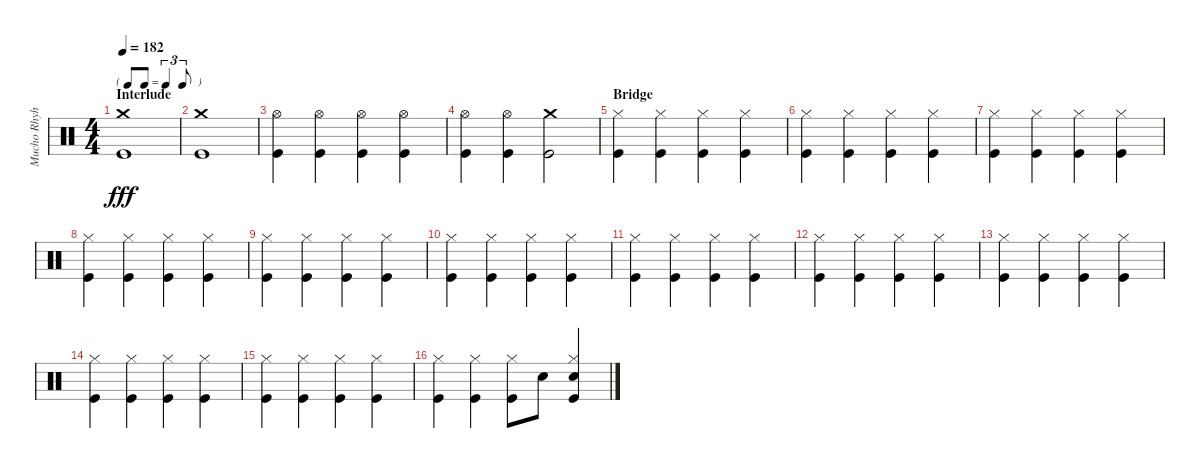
\track ("Mucho Rhyhtm" "Mucho Rhyh") {instrument percussion}
\staff {score}
\articulation defaults
\ts (4 4)
\tf triplet8th
\section ("" "Interlude")
\tempo 182
\clef neutral
\ks c
("Crash medium (hit)" "Kick (hit)").1{dy fff} |
("Crash medium (hit)" "Kick (hit)").1 |
("Hi-Hat (open)" "Kick (hit)").4 ("Hi-Hat (open)" "Kick (hit)").4 ("Hi-Hat (open)" "Kick (hit)").4 ("Hi-Hat (open)" "Kick (hit)").4 |
("Hi-Hat (open)" "Kick (hit)").4 ("Hi-Hat (open)" "Kick (hit)").4 ("Crash medium (hit)" "Kick (hit)").2 |
\section ("" "Bridge")
("Hi-Hat (closed)" "Kick (hit)").4 ("Hi-Hat (closed)" "Kick (hit)").4 ("Hi-Hat (closed)" "Kick (hit)").4 ("Hi-Hat (closed)" "Kick (hit)").4 |
("Hi-Hat (closed)" "Kick (hit)").4 ("Hi-Hat (closed)" "Kick (hit)").4 ("Hi-Hat (closed)" "Kick (hit)").4 ("Hi-Hat (closed)" "Kick (hit)").4 |
("Hi-Hat (closed)" "Kick (hit)").4 ("Hi-Hat (closed)" "Kick (hit)").4 ("Hi-Hat (closed)" "Kick (hit)").4 ("Hi-Hat (closed)" "Kick (hit)").4 |
("Hi-Hat (closed)" "Kick (hit)").4 ("Hi-Hat (closed)" "Kick (hit)").4 ("Hi-Hat (closed)" "Kick (hit)").4 ("Hi-Hat (closed)" "Kick (hit)").4 |
("Hi-Hat (closed)" "Kick (hit)").4 ("Hi-Hat (closed)" "Kick (hit)").4 ("Hi-Hat (closed)" "Kick (hit)").4 ("Hi-Hat (closed)" "Kick (hit)").4 |
("Hi-Hat (closed)" "Kick (hit)").4 ("Hi-Hat (closed)" "Kick (hit)").4 ("Hi-Hat (closed)" "Kick (hit)").4 ("Hi-Hat (closed)" "Kick (hit)").4 |
("Hi-Hat (closed)" "Kick (hit)").4 ("Hi-Hat (closed)" "Kick (hit)").4 ("Hi-Hat (closed)" "Kick (hit)").4 ("Hi-Hat (closed)" "Kick (hit)").4 |
("Hi-Hat (closed)" "Kick (hit)").4 ("Hi-Hat (closed)" "Kick (hit)").4 ("Hi-Hat (closed)" "Kick (hit)").4 ("Hi-Hat (closed)" "Kick (hit)").4 |
("Hi-Hat (closed)" "Kick (hit)").4 ("Hi-Hat (closed)" "Kick (hit)").4 ("Hi-Hat (closed)" "Kick (hit)").4 ("Hi-Hat (closed)" "Kick (hit)").4 |
("Hi-Hat (closed)" "Kick (hit)").4 ("Hi-Hat (closed)" "Kick (hit)").4 ("Hi-Hat (closed)" "Kick (hit)").4 ("Hi-Hat (closed)" "Kick (hit)").4 |
("Hi-Hat (closed)" "Kick (hit)").4 ("Hi-Hat (closed)" "Kick (hit)").4 ("Hi-Hat (closed)" "Kick (hit)").4 ("Hi-Hat (closed)" "Kick (hit)").4 |
("Hi-Hat (closed)" "Kick (hit)").4 ("Hi-Hat (closed)" "Kick (hit)").4 ("Hi-Hat (closed)" "Kick (hit)").8 "Snare (hit) 2".8 ("Hi-Hat (closed)" "Snare (hit) 2" "Kick (hit)").4
